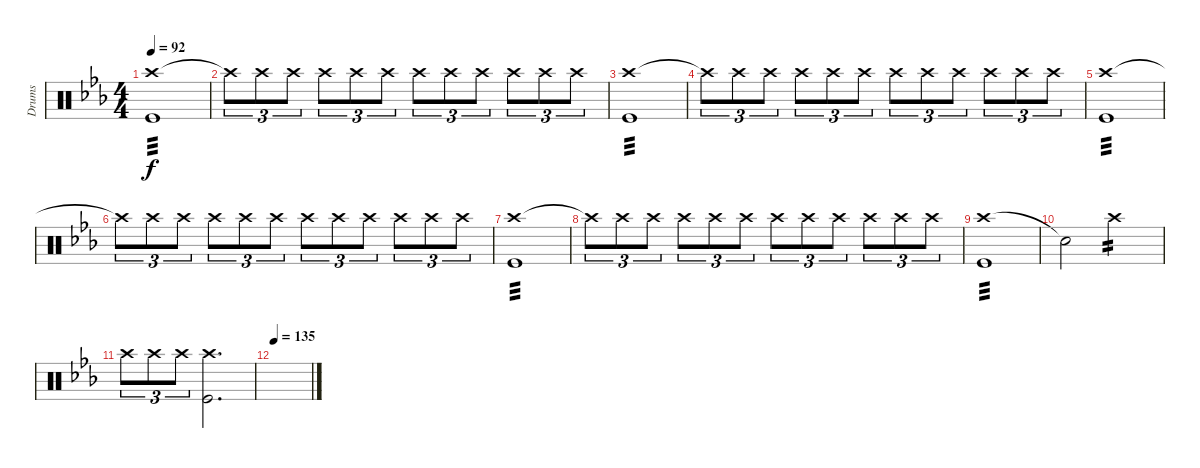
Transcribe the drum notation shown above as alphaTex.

\track ("Drums" "Drums") {instrument percussion}
\staff {score}
\articulation defaults
\ts (4 4)
\tempo 110
\tempo 92
\clef neutral
\ks eb
("Crash high (hit)" "Kick (hit)").1{tp 3 dy f} |
"Crash high (hit)"{t}.8{tu (3 2)} "Crash high (hit)".8{tu (3 2)} "Crash high (hit)".8{tu (3 2)} "Crash high (hit)".8{tu (3 2)} "Crash high (hit)".8{tu (3 2)} "Crash high (hit)".8{tu (3 2)} "Crash high (hit)".8{tu (3 2)} "Crash high (hit)".8{tu (3 2)} "Crash high (hit)".8{tu (3 2)} "Crash high (hit)".8{tu (3 2)} "Crash high (hit)".8{tu (3 2)} "Crash high (hit)".8{tu (3 2)} |
("Crash high (hit)" "Kick (hit)").1{tp 3} |
"Crash high (hit)"{t}.8{tu (3 2)} "Crash high (hit)".8{tu (3 2)} "Crash high (hit)".8{tu (3 2)} "Crash high (hit)".8{tu (3 2)} "Crash high (hit)".8{tu (3 2)} "Crash high (hit)".8{tu (3 2)} "Crash high (hit)".8{tu (3 2)} "Crash high (hit)".8{tu (3 2)} "Crash high (hit)".8{tu (3 2)} "Crash high (hit)".8{tu (3 2)} "Crash high (hit)".8{tu (3 2)} "Crash high (hit)".8{tu (3 2)} |
("Crash high (hit)" "Kick (hit)").1{tp 3} |
"Crash high (hit)"{t}.8{tu (3 2)} "Crash high (hit)".8{tu (3 2)} "Crash high (hit)".8{tu (3 2)} "Crash high (hit)".8{tu (3 2)} "Crash high (hit)".8{tu (3 2)} "Crash high (hit)".8{tu (3 2)} "Crash high (hit)".8{tu (3 2)} "Crash high (hit)".8{tu (3 2)} "Crash high (hit)".8{tu (3 2)} "Crash high (hit)".8{tu (3 2)} "Crash high (hit)".8{tu (3 2)} "Crash high (hit)".8{tu (3 2)} |
("Crash high (hit)" "Kick (hit)").1{tp 3} |
"Crash high (hit)"{t}.8{tu (3 2)} "Crash high (hit)".8{tu (3 2)} "Crash high (hit)".8{tu (3 2)} "Crash high (hit)".8{tu (3 2)} "Crash high (hit)".8{tu (3 2)} "Crash high (hit)".8{tu (3 2)} "Crash high (hit)".8{tu (3 2)} "Crash high (hit)".8{tu (3 2)} "Crash high (hit)".8{tu (3 2)} "Crash high (hit)".8{tu (3 2)} "Crash high (hit)".8{tu (3 2)} "Crash high (hit)".8{tu (3 2)} |
("Crash high (hit)" "Kick (hit)").1{tp 3} |
"Snare (hit)"{t}.2 "Crash high (hit)".2{tp 2} |
"Crash high (hit)".8{tu (3 2)} "Crash high (hit)".8{tu (3 2)} "Crash high (hit)".8{tu (3 2)} ("Crash high (hit)" "Kick (hit)").2{d} |
\tempo 135
